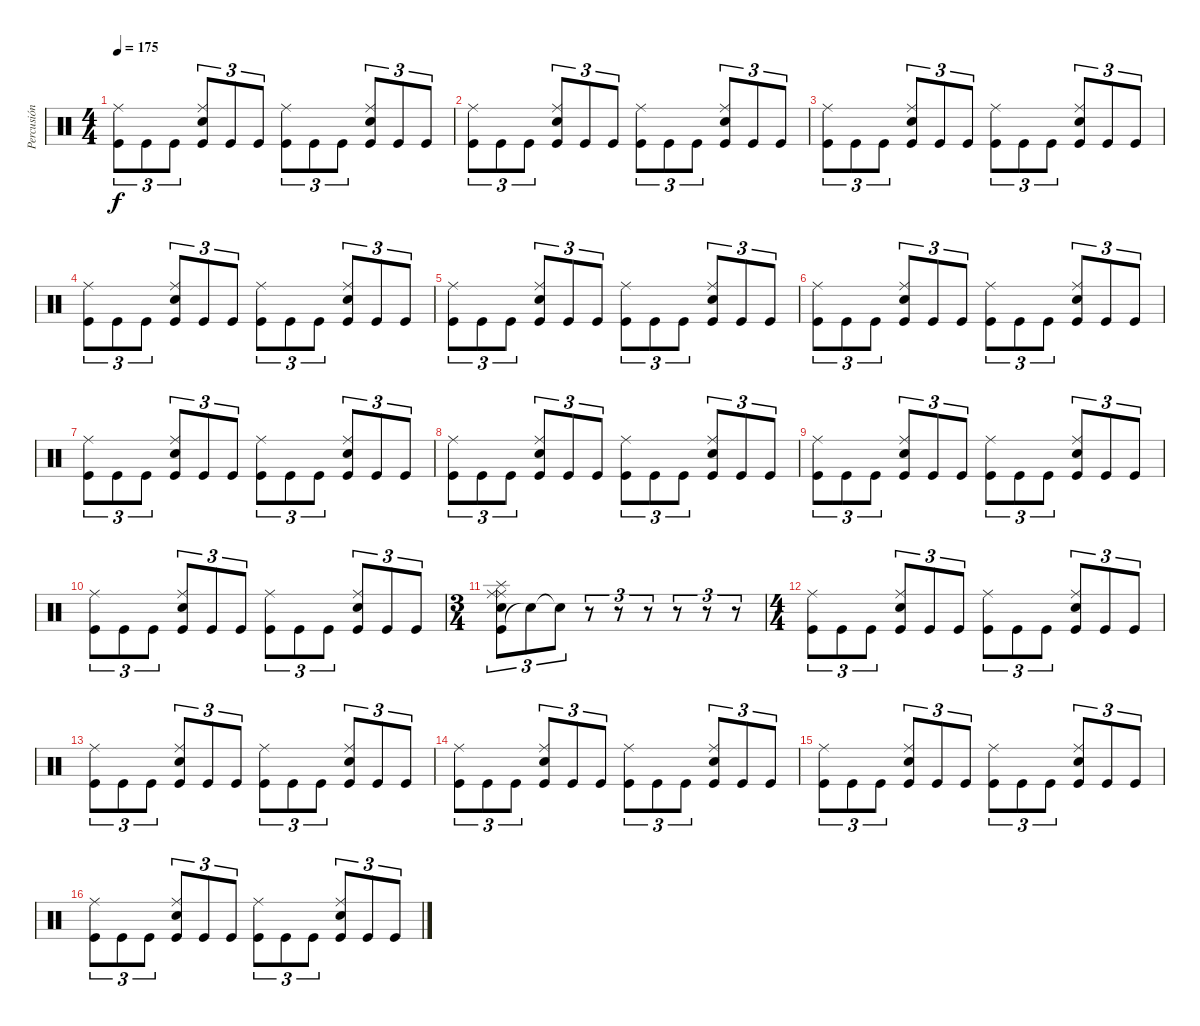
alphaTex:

\track ("Percusión" "Percusión") {instrument percussion}
\staff {score}
\articulation defaults
\ts (4 4)
\tempo 175
\clef neutral
\ks c
("Kick (hit)" "Ride (middle)").8{tu (3 2) dy f} "Kick (hit)".8{tu (3 2)} "Kick (hit)".8{tu (3 2)} ("Kick (hit)" "Electric Snare (hit)" "Ride (middle)").8{tu (3 2)} "Kick (hit)".8{tu (3 2)} "Kick (hit)".8{tu (3 2)} ("Kick (hit)" "Ride (middle)").8{tu (3 2)} "Kick (hit)".8{tu (3 2)} "Kick (hit)".8{tu (3 2)} ("Kick (hit)" "Electric Snare (hit)" "Ride (middle)").8{tu (3 2)} "Kick (hit)".8{tu (3 2)} "Kick (hit)".8{tu (3 2)} |
("Kick (hit)" "Ride (middle)").8{tu (3 2)} "Kick (hit)".8{tu (3 2)} "Kick (hit)".8{tu (3 2)} ("Kick (hit)" "Electric Snare (hit)" "Ride (middle)").8{tu (3 2)} "Kick (hit)".8{tu (3 2)} "Kick (hit)".8{tu (3 2)} ("Kick (hit)" "Ride (middle)").8{tu (3 2)} "Kick (hit)".8{tu (3 2)} "Kick (hit)".8{tu (3 2)} ("Kick (hit)" "Electric Snare (hit)" "Ride (middle)").8{tu (3 2)} "Kick (hit)".8{tu (3 2)} "Kick (hit)".8{tu (3 2)} |
("Kick (hit)" "Ride (middle)").8{tu (3 2)} "Kick (hit)".8{tu (3 2)} "Kick (hit)".8{tu (3 2)} ("Kick (hit)" "Electric Snare (hit)" "Ride (middle)").8{tu (3 2)} "Kick (hit)".8{tu (3 2)} "Kick (hit)".8{tu (3 2)} ("Kick (hit)" "Ride (middle)").8{tu (3 2)} "Kick (hit)".8{tu (3 2)} "Kick (hit)".8{tu (3 2)} ("Kick (hit)" "Electric Snare (hit)" "Ride (middle)").8{tu (3 2)} "Kick (hit)".8{tu (3 2)} "Kick (hit)".8{tu (3 2)} |
("Kick (hit)" "Ride (middle)").8{tu (3 2)} "Kick (hit)".8{tu (3 2)} "Kick (hit)".8{tu (3 2)} ("Kick (hit)" "Electric Snare (hit)" "Ride (middle)").8{tu (3 2)} "Kick (hit)".8{tu (3 2)} "Kick (hit)".8{tu (3 2)} ("Kick (hit)" "Ride (middle)").8{tu (3 2)} "Kick (hit)".8{tu (3 2)} "Kick (hit)".8{tu (3 2)} ("Kick (hit)" "Electric Snare (hit)" "Ride (middle)").8{tu (3 2)} "Kick (hit)".8{tu (3 2)} "Kick (hit)".8{tu (3 2)} |
("Kick (hit)" "Ride (middle)").8{tu (3 2)} "Kick (hit)".8{tu (3 2)} "Kick (hit)".8{tu (3 2)} ("Kick (hit)" "Electric Snare (hit)" "Ride (middle)").8{tu (3 2)} "Kick (hit)".8{tu (3 2)} "Kick (hit)".8{tu (3 2)} ("Kick (hit)" "Ride (middle)").8{tu (3 2)} "Kick (hit)".8{tu (3 2)} "Kick (hit)".8{tu (3 2)} ("Kick (hit)" "Electric Snare (hit)" "Ride (middle)").8{tu (3 2)} "Kick (hit)".8{tu (3 2)} "Kick (hit)".8{tu (3 2)} |
("Kick (hit)" "Ride (middle)").8{tu (3 2)} "Kick (hit)".8{tu (3 2)} "Kick (hit)".8{tu (3 2)} ("Kick (hit)" "Electric Snare (hit)" "Ride (middle)").8{tu (3 2)} "Kick (hit)".8{tu (3 2)} "Kick (hit)".8{tu (3 2)} ("Kick (hit)" "Ride (middle)").8{tu (3 2)} "Kick (hit)".8{tu (3 2)} "Kick (hit)".8{tu (3 2)} ("Kick (hit)" "Electric Snare (hit)" "Ride (middle)").8{tu (3 2)} "Kick (hit)".8{tu (3 2)} "Kick (hit)".8{tu (3 2)} |
("Kick (hit)" "Ride (middle)").8{tu (3 2)} "Kick (hit)".8{tu (3 2)} "Kick (hit)".8{tu (3 2)} ("Kick (hit)" "Electric Snare (hit)" "Ride (middle)").8{tu (3 2)} "Kick (hit)".8{tu (3 2)} "Kick (hit)".8{tu (3 2)} ("Kick (hit)" "Ride (middle)").8{tu (3 2)} "Kick (hit)".8{tu (3 2)} "Kick (hit)".8{tu (3 2)} ("Kick (hit)" "Electric Snare (hit)" "Ride (middle)").8{tu (3 2)} "Kick (hit)".8{tu (3 2)} "Kick (hit)".8{tu (3 2)} |
("Kick (hit)" "Ride (middle)").8{tu (3 2)} "Kick (hit)".8{tu (3 2)} "Kick (hit)".8{tu (3 2)} ("Kick (hit)" "Electric Snare (hit)" "Ride (middle)").8{tu (3 2)} "Kick (hit)".8{tu (3 2)} "Kick (hit)".8{tu (3 2)} ("Kick (hit)" "Ride (middle)").8{tu (3 2)} "Kick (hit)".8{tu (3 2)} "Kick (hit)".8{tu (3 2)} ("Kick (hit)" "Electric Snare (hit)" "Ride (middle)").8{tu (3 2)} "Kick (hit)".8{tu (3 2)} "Kick (hit)".8{tu (3 2)} |
("Kick (hit)" "Ride (middle)").8{tu (3 2)} "Kick (hit)".8{tu (3 2)} "Kick (hit)".8{tu (3 2)} ("Kick (hit)" "Electric Snare (hit)" "Ride (middle)").8{tu (3 2)} "Kick (hit)".8{tu (3 2)} "Kick (hit)".8{tu (3 2)} ("Kick (hit)" "Ride (middle)").8{tu (3 2)} "Kick (hit)".8{tu (3 2)} "Kick (hit)".8{tu (3 2)} ("Kick (hit)" "Electric Snare (hit)" "Ride (middle)").8{tu (3 2)} "Kick (hit)".8{tu (3 2)} "Kick (hit)".8{tu (3 2)} |
("Kick (hit)" "Ride (middle)").8{tu (3 2)} "Kick (hit)".8{tu (3 2)} "Kick (hit)".8{tu (3 2)} ("Kick (hit)" "Electric Snare (hit)" "Ride (middle)").8{tu (3 2)} "Kick (hit)".8{tu (3 2)} "Kick (hit)".8{tu (3 2)} ("Kick (hit)" "Ride (middle)").8{tu (3 2)} "Kick (hit)".8{tu (3 2)} "Kick (hit)".8{tu (3 2)} ("Kick (hit)" "Electric Snare (hit)" "Ride (middle)").8{tu (3 2)} "Kick (hit)".8{tu (3 2)} "Kick (hit)".8{tu (3 2)} |
\ts (3 4)
("Kick (hit)" "Electric Snare (hit)" "Splash (hit)" "Ride (middle)" "Ride (middle)").8{tu (3 2)} "Snare (hit)"{t}.8{tu (3 2)} "Snare (hit)"{t}.8{tu (3 2)} r.8{tu (3 2)} r.8{tu (3 2)} r.8{tu (3 2)} r.8{tu (3 2)} r.8{tu (3 2)} r.8{tu (3 2)} |
\ts (4 4)
("Kick (hit)" "Ride (middle)").8{tu (3 2)} "Kick (hit)".8{tu (3 2)} "Kick (hit)".8{tu (3 2)} ("Kick (hit)" "Electric Snare (hit)" "Ride (middle)").8{tu (3 2)} "Kick (hit)".8{tu (3 2)} "Kick (hit)".8{tu (3 2)} ("Kick (hit)" "Ride (middle)").8{tu (3 2)} "Kick (hit)".8{tu (3 2)} "Kick (hit)".8{tu (3 2)} ("Kick (hit)" "Electric Snare (hit)" "Ride (middle)").8{tu (3 2)} "Kick (hit)".8{tu (3 2)} "Kick (hit)".8{tu (3 2)} |
("Kick (hit)" "Ride (middle)").8{tu (3 2)} "Kick (hit)".8{tu (3 2)} "Kick (hit)".8{tu (3 2)} ("Kick (hit)" "Electric Snare (hit)" "Ride (middle)").8{tu (3 2)} "Kick (hit)".8{tu (3 2)} "Kick (hit)".8{tu (3 2)} ("Kick (hit)" "Ride (middle)").8{tu (3 2)} "Kick (hit)".8{tu (3 2)} "Kick (hit)".8{tu (3 2)} ("Kick (hit)" "Electric Snare (hit)" "Ride (middle)").8{tu (3 2)} "Kick (hit)".8{tu (3 2)} "Kick (hit)".8{tu (3 2)} |
("Kick (hit)" "Ride (middle)").8{tu (3 2)} "Kick (hit)".8{tu (3 2)} "Kick (hit)".8{tu (3 2)} ("Kick (hit)" "Electric Snare (hit)" "Ride (middle)").8{tu (3 2)} "Kick (hit)".8{tu (3 2)} "Kick (hit)".8{tu (3 2)} ("Kick (hit)" "Ride (middle)").8{tu (3 2)} "Kick (hit)".8{tu (3 2)} "Kick (hit)".8{tu (3 2)} ("Kick (hit)" "Electric Snare (hit)" "Ride (middle)").8{tu (3 2)} "Kick (hit)".8{tu (3 2)} "Kick (hit)".8{tu (3 2)} |
("Kick (hit)" "Ride (middle)").8{tu (3 2)} "Kick (hit)".8{tu (3 2)} "Kick (hit)".8{tu (3 2)} ("Kick (hit)" "Electric Snare (hit)" "Ride (middle)").8{tu (3 2)} "Kick (hit)".8{tu (3 2)} "Kick (hit)".8{tu (3 2)} ("Kick (hit)" "Ride (middle)").8{tu (3 2)} "Kick (hit)".8{tu (3 2)} "Kick (hit)".8{tu (3 2)} ("Kick (hit)" "Electric Snare (hit)" "Ride (middle)").8{tu (3 2)} "Kick (hit)".8{tu (3 2)} "Kick (hit)".8{tu (3 2)} |
("Kick (hit)" "Ride (middle)").8{tu (3 2)} "Kick (hit)".8{tu (3 2)} "Kick (hit)".8{tu (3 2)} ("Kick (hit)" "Electric Snare (hit)" "Ride (middle)").8{tu (3 2)} "Kick (hit)".8{tu (3 2)} "Kick (hit)".8{tu (3 2)} ("Kick (hit)" "Ride (middle)").8{tu (3 2)} "Kick (hit)".8{tu (3 2)} "Kick (hit)".8{tu (3 2)} ("Kick (hit)" "Electric Snare (hit)" "Ride (middle)").8{tu (3 2)} "Kick (hit)".8{tu (3 2)} "Kick (hit)".8{tu (3 2)}
